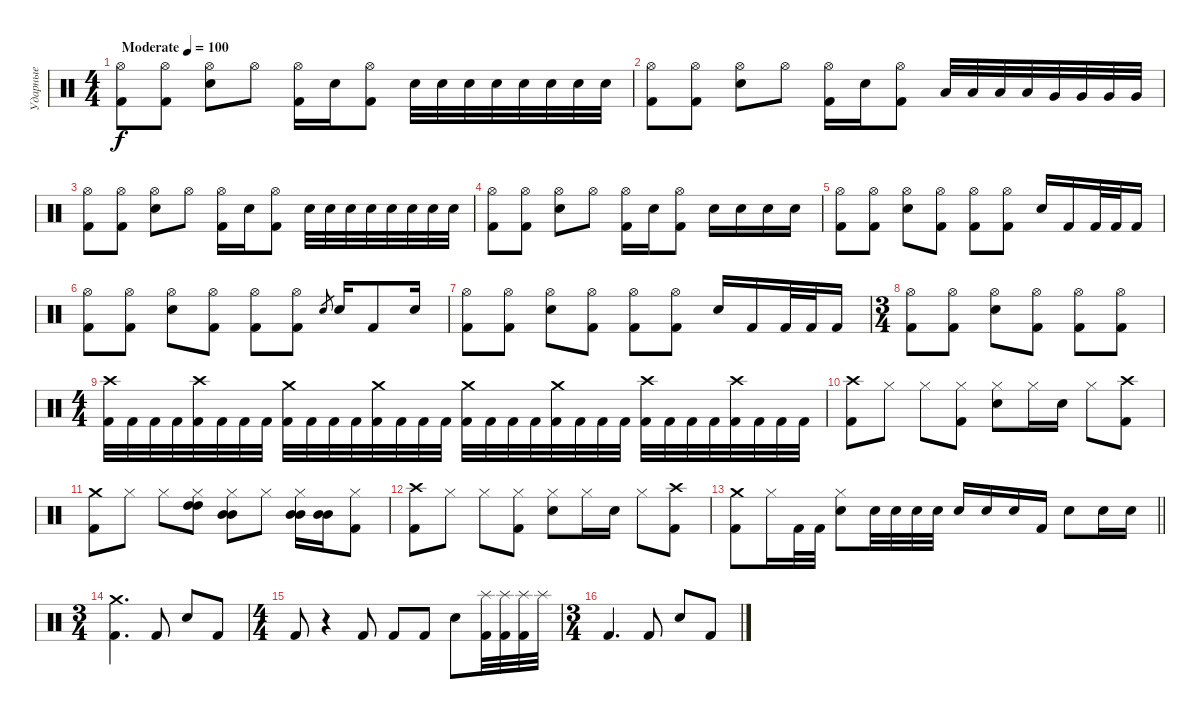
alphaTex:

\track ("Ударные" "Ударные") {instrument percussion}
\staff {score}
\articulation defaults
\ts (4 4)
\tempo (100 "Moderate")
\clef neutral
\ks c
("Hi-Hat (open)" "Kick (hit) 2").8{dy f} ("Hi-Hat (open)" "Kick (hit) 2").8 ("Hi-Hat (open)" "Electric Snare (hit)").8 "Hi-Hat (open)".8 ("Hi-Hat (open)" "Kick (hit) 2").16 "Electric Snare (hit)".16 ("Hi-Hat (open)" "Kick (hit) 2").8 "Electric Snare (hit)".32 "Electric Snare (hit)".32 "Electric Snare (hit)".32 "Electric Snare (hit)".32 "Electric Snare (hit)".32 "Electric Snare (hit)".32 "Electric Snare (hit)".32 "Electric Snare (hit)".32 |
("Hi-Hat (open)" "Kick (hit) 2").8 ("Hi-Hat (open)" "Kick (hit) 2").8 ("Hi-Hat (open)" "Electric Snare (hit)").8 "Hi-Hat (open)".8 ("Hi-Hat (open)" "Kick (hit) 2").16 "Electric Snare (hit)".16 ("Hi-Hat (open)" "Kick (hit) 2").8 "Low Tom (hit)".32 "Low Tom (hit)".32 "Low Tom (hit)".32 "Low Tom (hit)".32 "Very Low Tom (hit)".32 "Very Low Tom (hit)".32 "Very Low Tom (hit)".32 "Very Low Tom (hit)".32 |
("Hi-Hat (open)" "Kick (hit) 2").8 ("Hi-Hat (open)" "Kick (hit) 2").8 ("Hi-Hat (open)" "Electric Snare (hit)").8 "Hi-Hat (open)".8 ("Hi-Hat (open)" "Kick (hit) 2").16 "Electric Snare (hit)".16 ("Hi-Hat (open)" "Kick (hit) 2").8 "Electric Snare (hit)".32 "Electric Snare (hit)".32 "Electric Snare (hit)".32 "Electric Snare (hit)".32 "Electric Snare (hit)".32 "Electric Snare (hit)".32 "Electric Snare (hit)".32 "Electric Snare (hit)".32 |
("Hi-Hat (open)" "Kick (hit) 2").8 ("Hi-Hat (open)" "Kick (hit) 2").8 ("Hi-Hat (open)" "Electric Snare (hit)").8 "Hi-Hat (open)".8 ("Hi-Hat (open)" "Kick (hit) 2").16 "Electric Snare (hit)".16 ("Hi-Hat (open)" "Kick (hit) 2").8 "Electric Snare (hit)".16 "Electric Snare (hit)".16 "Electric Snare (hit)".16 "Electric Snare (hit)".16 |
("Hi-Hat (open)" "Kick (hit) 2").8 ("Hi-Hat (open)" "Kick (hit) 2").8 ("Hi-Hat (open)" "Electric Snare (hit)").8 ("Hi-Hat (open)" "Kick (hit) 2").8 ("Hi-Hat (open)" "Kick (hit) 2").8 ("Hi-Hat (open)" "Kick (hit) 2").8 "Electric Snare (hit)".16 "Kick (hit) 2".16 "Kick (hit) 2".32 "Kick (hit) 2".32 "Kick (hit) 2".16 |
("Hi-Hat (open)" "Kick (hit) 2").8 ("Hi-Hat (open)" "Kick (hit) 2").8 ("Hi-Hat (open)" "Electric Snare (hit)").8 ("Hi-Hat (open)" "Kick (hit) 2").8 ("Hi-Hat (open)" "Kick (hit) 2").8 ("Hi-Hat (open)" "Kick (hit) 2").8 "Electric Snare (hit)".8{gr} "Electric Snare (hit)".16 "Kick (hit) 2".8 "Electric Snare (hit)".16 |
("Hi-Hat (open)" "Kick (hit) 2").8 ("Hi-Hat (open)" "Kick (hit) 2").8 ("Hi-Hat (open)" "Electric Snare (hit)").8 ("Hi-Hat (open)" "Kick (hit) 2").8 ("Hi-Hat (open)" "Kick (hit) 2").8 ("Hi-Hat (open)" "Kick (hit) 2").8 "Electric Snare (hit)".16 "Kick (hit) 2".16 "Kick (hit) 2".32 "Kick (hit) 2".32 "Kick (hit) 2".16 |
\ts (3 4)
("Hi-Hat (open)" "Kick (hit) 2").8 ("Hi-Hat (open)" "Kick (hit) 2").8 ("Hi-Hat (open)" "Electric Snare (hit)").8 ("Hi-Hat (open)" "Kick (hit) 2").8 ("Hi-Hat (open)" "Kick (hit) 2").8 ("Hi-Hat (open)" "Kick (hit) 2").8 |
\ts (4 4)
("Crash high (hit)" "Kick (hit) 2").32 "Kick (hit) 2".32 "Kick (hit) 2".32 "Kick (hit) 2".32 ("Crash high (hit)" "Kick (hit) 2").32 "Kick (hit) 2".32 "Kick (hit) 2".32 "Kick (hit) 2".32 ("Crash medium (hit)" "Kick (hit) 2").32 "Kick (hit) 2".32 "Kick (hit) 2".32 "Kick (hit) 2".32 ("Crash medium (hit)" "Kick (hit) 2").32 "Kick (hit) 2".32 "Kick (hit) 2".32 "Kick (hit) 2".32 ("Crash medium (hit)" "Kick (hit) 2").32 "Kick (hit) 2".32 "Kick (hit) 2".32 "Kick (hit) 2".32 ("Crash medium (hit)" "Kick (hit) 2").32 "Kick (hit) 2".32 "Kick (hit) 2".32 "Kick (hit) 2".32 ("Crash high (hit)" "Kick (hit) 2").32 "Kick (hit) 2".32 "Kick (hit) 2".32 "Kick (hit) 2".32 ("Crash high (hit)" "Kick (hit) 2").32 "Kick (hit) 2".32 "Kick (hit) 2".32 "Kick (hit) 2".32 |
("Crash high (hit)" "Kick (hit) 2").8 "Hi-Hat (closed)".8 "Hi-Hat (closed)".8 ("Hi-Hat (closed)" "Kick (hit) 2").8 ("Hi-Hat (closed)" "Electric Snare (hit)").8 "Hi-Hat (closed)".16 "Electric Snare (hit)".16 "Hi-Hat (closed)".8 ("Crash high (hit)" "Kick (hit) 2").8 |
("Crash medium (hit)" "Kick (hit) 2").8 "Hi-Hat (closed)".8 "Hi-Hat (closed)".8 ("Hi-Hat (closed)" "High Tom (hit)" "High Tom (hit)").8 ("Hi-Hat (closed)" "Mid Tom (hit)" "Mid Tom (hit)").8 "Hi-Hat (closed)".8 ("Hi-Hat (closed)" "Mid Tom (hit)" "Mid Tom (hit)").16 ("Mid Tom (hit)" "Mid Tom (hit)").16 ("Hi-Hat (closed)" "Kick (hit) 2").8 |
("Crash high (hit)" "Kick (hit) 2").8 "Hi-Hat (closed)".8 "Hi-Hat (closed)".8 ("Hi-Hat (closed)" "Kick (hit) 2").8 ("Hi-Hat (closed)" "Electric Snare (hit)").8 "Hi-Hat (closed)".16 "Electric Snare (hit)".16 "Hi-Hat (closed)".8 ("Crash high (hit)" "Kick (hit) 2").8 |
\barLineRight lightlight
("Crash medium (hit)" "Kick (hit) 2").8 "Hi-Hat (closed)".16 "Kick (hit) 2".32 "Kick (hit) 2".32 ("Hi-Hat (closed)" "Electric Snare (hit)").8 "Electric Snare (hit)".32 "Electric Snare (hit)".32 "Electric Snare (hit)".32 "Electric Snare (hit)".32 "Electric Snare (hit)".16 "Electric Snare (hit)".16 "Electric Snare (hit)".16 "Kick (hit) 2".16 "Electric Snare (hit)".8 "Electric Snare (hit)".16 "Electric Snare (hit)".16 |
\ts (3 4)
("Crash medium (hit)" "Kick (hit) 2").4{d} "Kick (hit) 2".8 "Electric Snare (hit)".8 "Kick (hit) 2".8 |
\ts (4 4)
"Kick (hit) 2".8 r.4 "Kick (hit) 2".8 "Kick (hit) 2".8 "Kick (hit) 2".8 "Electric Snare (hit)".8 ("Splash (hit)" "Kick (hit) 2").32 ("Splash (hit)" "Kick (hit) 2").32 ("Splash (hit)" "Kick (hit) 2").32 "Splash (hit)".32 |
\ts (3 4)
"Kick (hit) 2".4{d} "Kick (hit) 2".8 "Electric Snare (hit)".8 "Kick (hit) 2".8
